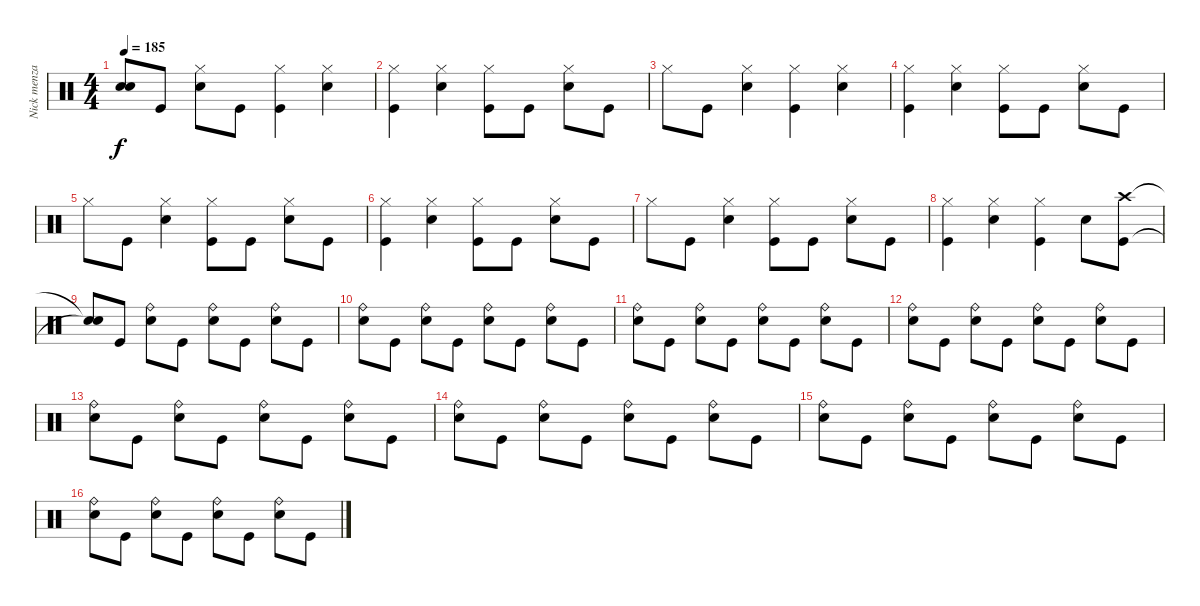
\track ("Nick menza/Jimmy de grasso" "Nick menza") {instrument percussion}
\staff {score}
\articulation defaults
\ts (4 4)
\tempo 185
\clef neutral
\ks c
("Snare (hit)"{t} "Snare (hit)"{t}).8{dy f} "Kick (hit)".8 ("Hi-Hat (closed)" "Snare (hit) 2").8 "Kick (hit)".8 ("Kick (hit)" "Hi-Hat (closed)").4 ("Hi-Hat (closed)" "Snare (hit) 2").4 |
("Kick (hit)" "Hi-Hat (closed)").4 ("Hi-Hat (closed)" "Snare (hit) 2").4 ("Kick (hit)" "Hi-Hat (closed)").8 "Kick (hit)".8 ("Hi-Hat (closed)" "Snare (hit) 2").8 "Kick (hit)".8 |
"Hi-Hat (closed)".8 "Kick (hit)".8 ("Hi-Hat (closed)" "Snare (hit) 2").4 ("Kick (hit)" "Hi-Hat (closed)").4 ("Hi-Hat (closed)" "Snare (hit) 2").4 |
("Kick (hit)" "Hi-Hat (closed)").4 ("Hi-Hat (closed)" "Snare (hit) 2").4 ("Kick (hit)" "Hi-Hat (closed)").8 "Kick (hit)".8 ("Hi-Hat (closed)" "Snare (hit) 2").8 "Kick (hit)".8 |
"Hi-Hat (closed)".8 "Kick (hit)".8 ("Hi-Hat (closed)" "Snare (hit) 2").4 ("Kick (hit)" "Hi-Hat (closed)").8 "Kick (hit)".8 ("Hi-Hat (closed)" "Snare (hit) 2").8 "Kick (hit)".8 |
("Kick (hit)" "Hi-Hat (closed)").4 ("Hi-Hat (closed)" "Snare (hit) 2").4 ("Kick (hit)" "Hi-Hat (closed)").8 "Kick (hit)".8 ("Hi-Hat (closed)" "Snare (hit) 2").8 "Kick (hit)".8 |
"Hi-Hat (closed)".8 "Kick (hit)".8 ("Hi-Hat (closed)" "Snare (hit) 2").4 ("Kick (hit)" "Hi-Hat (closed)").8 "Kick (hit)".8 ("Hi-Hat (closed)" "Snare (hit) 2").8 "Kick (hit)".8 |
("Kick (hit)" "Hi-Hat (closed)").4 ("Hi-Hat (closed)" "Snare (hit) 2").4 ("Kick (hit)" "Hi-Hat (closed)").4 "Snare (hit) 2".8 ("Kick (hit)" "Crash high (hit)").8 |
("Snare (hit)"{t} "Snare (hit)"{t}).8 "Kick (hit)".8 ("Ride (bell)" "Snare (hit) 2").8 "Kick (hit)".8 ("Ride (bell)" "Snare (hit) 2").8 "Kick (hit)".8 ("Ride (bell)" "Snare (hit) 2").8 "Kick (hit)".8 |
("Ride (bell)" "Snare (hit) 2").8 "Kick (hit)".8 ("Ride (bell)" "Snare (hit) 2").8 "Kick (hit)".8 ("Ride (bell)" "Snare (hit) 2").8 "Kick (hit)".8 ("Ride (bell)" "Snare (hit) 2").8 "Kick (hit)".8 |
("Ride (bell)" "Snare (hit) 2").8 "Kick (hit)".8 ("Ride (bell)" "Snare (hit) 2").8 "Kick (hit)".8 ("Ride (bell)" "Snare (hit) 2").8 "Kick (hit)".8 ("Ride (bell)" "Snare (hit) 2").8 "Kick (hit)".8 |
("Ride (bell)" "Snare (hit) 2").8 "Kick (hit)".8 ("Ride (bell)" "Snare (hit) 2").8 "Kick (hit)".8 ("Ride (bell)" "Snare (hit) 2").8 "Kick (hit)".8 ("Ride (bell)" "Snare (hit) 2").8 "Kick (hit)".8 |
("Ride (bell)" "Snare (hit) 2").8 "Kick (hit)".8 ("Ride (bell)" "Snare (hit) 2").8 "Kick (hit)".8 ("Ride (bell)" "Snare (hit) 2").8 "Kick (hit)".8 ("Ride (bell)" "Snare (hit) 2").8 "Kick (hit)".8 |
("Ride (bell)" "Snare (hit) 2").8 "Kick (hit)".8 ("Ride (bell)" "Snare (hit) 2").8 "Kick (hit)".8 ("Ride (bell)" "Snare (hit) 2").8 "Kick (hit)".8 ("Ride (bell)" "Snare (hit) 2").8 "Kick (hit)".8 |
("Ride (bell)" "Snare (hit) 2").8 "Kick (hit)".8 ("Ride (bell)" "Snare (hit) 2").8 "Kick (hit)".8 ("Ride (bell)" "Snare (hit) 2").8 "Kick (hit)".8 ("Ride (bell)" "Snare (hit) 2").8 "Kick (hit)".8 |
("Ride (bell)" "Snare (hit) 2").8 "Kick (hit)".8 ("Ride (bell)" "Snare (hit) 2").8 "Kick (hit)".8 ("Ride (bell)" "Snare (hit) 2").8 "Kick (hit)".8 ("Ride (bell)" "Snare (hit) 2").8 "Kick (hit)".8
